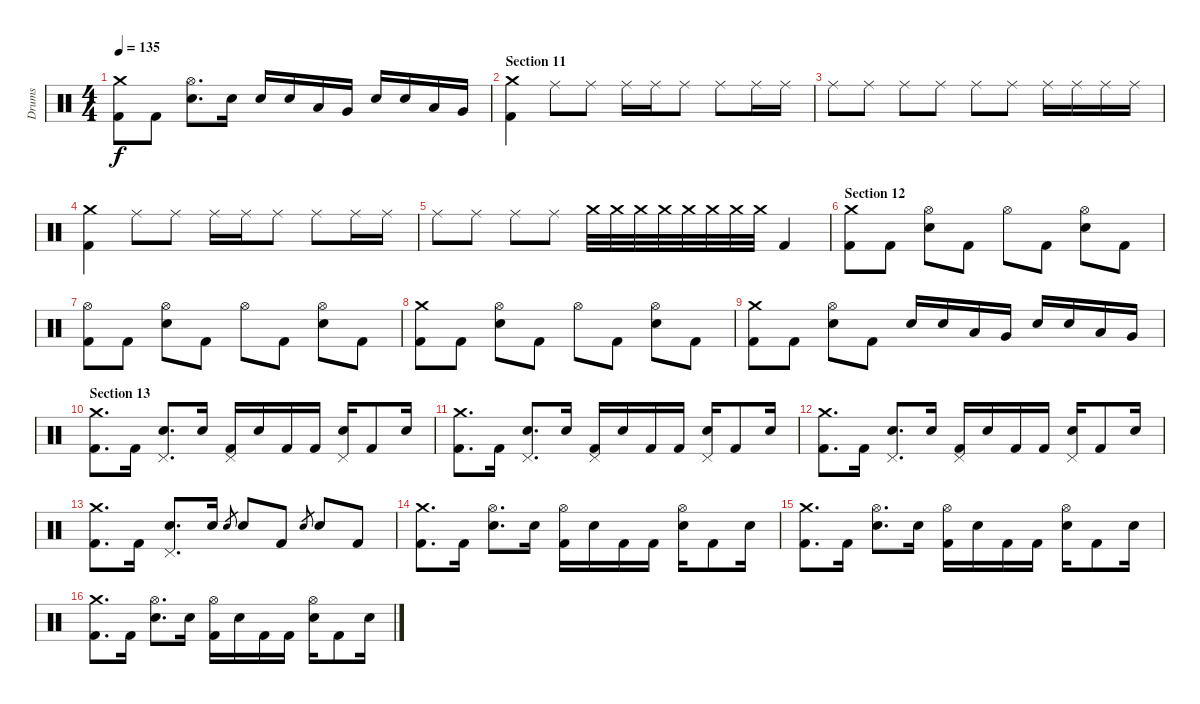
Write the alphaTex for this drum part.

\track ("Drums" "Drums") {instrument percussion}
\staff {score}
\articulation defaults
\ts (4 4)
\tempo 135
\clef neutral
\ks c
("Crash medium (hit)" "Kick (hit) 2").8{dy f} "Kick (hit) 2".8 ("Hi-Hat (open)" "Electric Snare (hit)").8{d} "Electric Snare (hit)".16 "Electric Snare (hit)".16 "Electric Snare (hit)".16 "Low Tom (hit)".16 "Very Low Tom (hit)".16 "Electric Snare (hit)".16 "Electric Snare (hit)".16 "Low Tom (hit)".16 "Very Low Tom (hit)".16 |
\section ("" "Section 11")
("Crash medium (hit)" "Kick (hit) 2").4 "Ride (middle)".8 "Ride (middle)".8 "Ride (middle)".16 "Ride (middle)".16 "Ride (middle)".8 "Ride (middle)".8 "Ride (middle)".16 "Ride (middle)".16 |
"Ride (middle)".8 "Ride (middle)".8 "Ride (middle)".8 "Ride (middle)".8 "Ride (middle)".8 "Ride (middle)".8 "Ride (middle)".16 "Ride (middle)".16 "Ride (middle)".16 "Ride (middle)".16 |
("Crash medium (hit)" "Kick (hit) 2").4 "Ride (middle)".8 "Ride (middle)".8 "Ride (middle)".16 "Ride (middle)".16 "Ride (middle)".8 "Ride (middle)".8 "Ride (middle)".16 "Ride (middle)".16 |
"Ride (middle)".8 "Ride (middle)".8 "Ride (middle)".8 "Ride (middle)".8{volume 0} "Crash medium (hit)".32{volume 13} "Crash medium (hit)".32 "Crash medium (hit)".32 "Crash medium (hit)".32 "Crash medium (hit)".32 "Crash medium (hit)".32 "Crash medium (hit)".32 "Crash medium (hit)".32 "Kick (hit) 2".4 |
\section ("" "Section 12")
("Crash medium (hit)" "Kick (hit) 2").8 "Kick (hit) 2".8 ("Hi-Hat (open)" "Electric Snare (hit)").8 "Kick (hit) 2".8 "Hi-Hat (open)".8 "Kick (hit) 2".8 ("Hi-Hat (open)" "Electric Snare (hit)").8 "Kick (hit) 2".8 |
("Hi-Hat (open)" "Kick (hit) 2").8 "Kick (hit) 2".8 ("Hi-Hat (open)" "Electric Snare (hit)").8 "Kick (hit) 2".8 "Hi-Hat (open)".8 "Kick (hit) 2".8 ("Hi-Hat (open)" "Electric Snare (hit)").8 "Kick (hit) 2".8 |
("Crash medium (hit)" "Kick (hit) 2").8 "Kick (hit) 2".8 ("Hi-Hat (open)" "Electric Snare (hit)").8 "Kick (hit) 2".8 "Hi-Hat (open)".8 "Kick (hit) 2".8 ("Hi-Hat (open)" "Electric Snare (hit)").8 "Kick (hit) 2".8 |
("Crash medium (hit)" "Kick (hit) 2").8 "Kick (hit) 2".8 ("Hi-Hat (open)" "Electric Snare (hit)").8 "Kick (hit) 2".8 "Electric Snare (hit)".16 "Electric Snare (hit)".16 "Low Tom (hit)".16 "Very Low Tom (hit)".16 "Electric Snare (hit)".16 "Electric Snare (hit)".16 "Low Tom (hit)".16 "Very Low Tom (hit)".16 |
\section ("" "Section 13")
("Crash medium (hit)" "Kick (hit) 2").8{d} "Kick (hit) 2".16 ("Pedal Hi-Hat (hit)" "Electric Snare (hit)").8{d} "Electric Snare (hit)".16 ("Pedal Hi-Hat (hit)" "Kick (hit) 2").16 "Electric Snare (hit)".16 "Kick (hit) 2".16 "Kick (hit) 2".16 ("Pedal Hi-Hat (hit)" "Electric Snare (hit)").16 "Kick (hit) 2".8 "Electric Snare (hit)".16 |
("Crash medium (hit)" "Kick (hit) 2").8{d} "Kick (hit) 2".16 ("Pedal Hi-Hat (hit)" "Electric Snare (hit)").8{d} "Electric Snare (hit)".16 ("Pedal Hi-Hat (hit)" "Kick (hit) 2").16 "Electric Snare (hit)".16 "Kick (hit) 2".16 "Kick (hit) 2".16 ("Pedal Hi-Hat (hit)" "Electric Snare (hit)").16 "Kick (hit) 2".8 "Electric Snare (hit)".16 |
("Crash medium (hit)" "Kick (hit) 2").8{d} "Kick (hit) 2".16 ("Pedal Hi-Hat (hit)" "Electric Snare (hit)").8{d} "Electric Snare (hit)".16 ("Pedal Hi-Hat (hit)" "Kick (hit) 2").16 "Electric Snare (hit)".16 "Kick (hit) 2".16 "Kick (hit) 2".16 ("Pedal Hi-Hat (hit)" "Electric Snare (hit)").16 "Kick (hit) 2".8 "Electric Snare (hit)".16 |
("Crash medium (hit)" "Kick (hit) 2").8{d} "Kick (hit) 2".16 ("Pedal Hi-Hat (hit)" "Electric Snare (hit)").8{d} "Electric Snare (hit)".16 "Electric Snare (hit)".8{gr} "Electric Snare (hit)".8 "Kick (hit) 2".8 "Electric Snare (hit)".8{gr} "Electric Snare (hit)".8 "Kick (hit) 2".8 |
("Crash medium (hit)" "Kick (hit) 2").8{d} "Kick (hit) 2".16 ("Hi-Hat (open)" "Electric Snare (hit)").8{d} "Electric Snare (hit)".16 ("Hi-Hat (open)" "Kick (hit) 2").16 "Electric Snare (hit)".16 "Kick (hit) 2".16 "Kick (hit) 2".16 ("Hi-Hat (open)" "Electric Snare (hit)").16 "Kick (hit) 2".8 "Electric Snare (hit)".16 |
("Crash medium (hit)" "Kick (hit) 2").8{d} "Kick (hit) 2".16 ("Hi-Hat (open)" "Electric Snare (hit)").8{d} "Electric Snare (hit)".16 ("Hi-Hat (open)" "Kick (hit) 2").16 "Electric Snare (hit)".16 "Kick (hit) 2".16 "Kick (hit) 2".16 ("Hi-Hat (open)" "Electric Snare (hit)").16 "Kick (hit) 2".8 "Electric Snare (hit)".16 |
("Crash medium (hit)" "Kick (hit) 2").8{d} "Kick (hit) 2".16 ("Hi-Hat (open)" "Electric Snare (hit)").8{d} "Electric Snare (hit)".16 ("Hi-Hat (open)" "Kick (hit) 2").16 "Electric Snare (hit)".16 "Kick (hit) 2".16 "Kick (hit) 2".16 ("Hi-Hat (open)" "Electric Snare (hit)").16 "Kick (hit) 2".8 "Electric Snare (hit)".16
